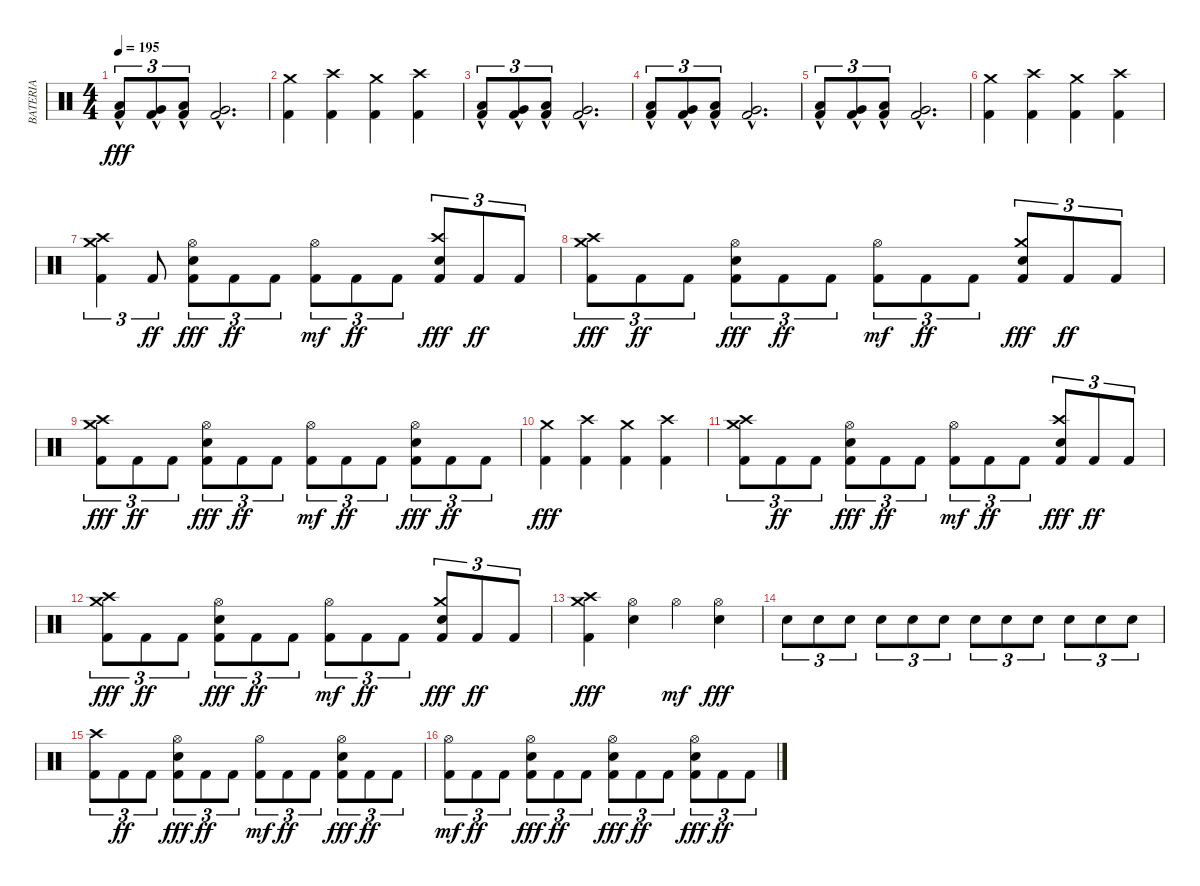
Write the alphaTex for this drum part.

\track ("BATERIA" "BATERIA") {instrument percussion}
\staff
\articulation defaults
\ts (4 4)
\tempo 195
\clef neutral
\ks c
("Kick (hit) 2" "Low Floor Tom (hit)"{hac}).8{tu (3 2) dy fff} ("Kick (hit) 2" "Very Low Tom (hit)"{hac}).8{tu (3 2)} ("Kick (hit) 2" "Low Floor Tom (hit)"{hac}).8{tu (3 2)} ("Kick (hit) 2" "Very Low Tom (hit)"{hac}).2{d} |
("Kick (hit) 2" "Crash medium (hit)").4 ("Kick (hit) 2" "Crash high (hit)").4 ("Kick (hit) 2" "Crash medium (hit)").4 ("Kick (hit) 2" "Crash high (hit)").4 |
("Kick (hit) 2" "Low Floor Tom (hit)"{hac}).8{tu (3 2)} ("Kick (hit) 2" "Very Low Tom (hit)"{hac}).8{tu (3 2)} ("Kick (hit) 2" "Low Floor Tom (hit)"{hac}).8{tu (3 2)} ("Kick (hit) 2" "Very Low Tom (hit)"{hac}).2{d} |
("Kick (hit) 2" "Low Floor Tom (hit)"{hac}).8{tu (3 2)} ("Kick (hit) 2" "Very Low Tom (hit)"{hac}).8{tu (3 2)} ("Kick (hit) 2" "Low Floor Tom (hit)"{hac}).8{tu (3 2)} ("Kick (hit) 2" "Very Low Tom (hit)"{hac}).2{d} |
("Kick (hit) 2" "Low Floor Tom (hit)"{hac}).8{tu (3 2)} ("Kick (hit) 2" "Very Low Tom (hit)"{hac}).8{tu (3 2)} ("Kick (hit) 2" "Low Floor Tom (hit)"{hac}).8{tu (3 2)} ("Kick (hit) 2" "Very Low Tom (hit)"{hac}).2{d} |
("Kick (hit) 2" "Crash medium (hit)").4 ("Kick (hit) 2" "Crash high (hit)").4 ("Kick (hit) 2" "Crash medium (hit)").4 ("Kick (hit) 2" "Crash high (hit)").4 |
("Kick (hit) 2" "Crash high (hit)" "Crash medium (hit)").4{tu (3 2)} "Kick (hit) 2".8{tu (3 2) dy ff} ("Kick (hit) 2" "Electric Snare (hit)" "Hi-Hat (open)").8{tu (3 2) dy fff} "Kick (hit) 2".8{tu (3 2) dy ff} "Kick (hit) 2".8{tu (3 2)} ("Kick (hit) 2" "Hi-Hat (open)").8{tu (3 2) dy mf} "Kick (hit) 2".8{tu (3 2) dy ff} "Kick (hit) 2".8{tu (3 2)} ("Kick (hit) 2" "Electric Snare (hit)" "Crash high (hit)").8{tu (3 2) dy fff} "Kick (hit) 2".8{tu (3 2) dy ff} "Kick (hit) 2".8{tu (3 2)} |
("Kick (hit) 2" "Crash medium (hit)" "Crash high (hit)").8{tu (3 2) dy fff} "Kick (hit) 2".8{tu (3 2) dy ff} "Kick (hit) 2".8{tu (3 2)} ("Kick (hit) 2" "Electric Snare (hit)" "Hi-Hat (open)").8{tu (3 2) dy fff} "Kick (hit) 2".8{tu (3 2) dy ff} "Kick (hit) 2".8{tu (3 2)} ("Kick (hit) 2" "Hi-Hat (open)").8{tu (3 2) dy mf} "Kick (hit) 2".8{tu (3 2) dy ff} "Kick (hit) 2".8{tu (3 2)} ("Kick (hit) 2" "Electric Snare (hit)" "Crash medium (hit)").8{tu (3 2) dy fff} "Kick (hit) 2".8{tu (3 2) dy ff} "Kick (hit) 2".8{tu (3 2)} |
("Kick (hit) 2" "Crash high (hit)" "Crash medium (hit)").8{tu (3 2) dy fff} "Kick (hit) 2".8{tu (3 2) dy ff} "Kick (hit) 2".8{tu (3 2)} ("Kick (hit) 2" "Electric Snare (hit)" "Hi-Hat (open)").8{tu (3 2) dy fff} "Kick (hit) 2".8{tu (3 2) dy ff} "Kick (hit) 2".8{tu (3 2)} ("Kick (hit) 2" "Hi-Hat (open)").8{tu (3 2) dy mf} "Kick (hit) 2".8{tu (3 2) dy ff} "Kick (hit) 2".8{tu (3 2)} ("Kick (hit) 2" "Electric Snare (hit)" "Hi-Hat (open)").8{tu (3 2) dy fff} "Kick (hit) 2".8{tu (3 2) dy ff} "Kick (hit) 2".8{tu (3 2)} |
("Kick (hit) 2" "Crash medium (hit)").4{dy fff} ("Kick (hit) 2" "Crash high (hit)").4 ("Kick (hit) 2" "Crash medium (hit)").4 ("Kick (hit) 2" "Crash high (hit)").4 |
("Kick (hit) 2" "Crash medium (hit)" "Crash high (hit)").8{tu (3 2)} "Kick (hit) 2".8{tu (3 2) dy ff} "Kick (hit) 2".8{tu (3 2)} ("Kick (hit) 2" "Electric Snare (hit)" "Hi-Hat (open)").8{tu (3 2) dy fff} "Kick (hit) 2".8{tu (3 2) dy ff} "Kick (hit) 2".8{tu (3 2)} ("Kick (hit) 2" "Hi-Hat (open)").8{tu (3 2) dy mf} "Kick (hit) 2".8{tu (3 2) dy ff} "Kick (hit) 2".8{tu (3 2)} ("Kick (hit) 2" "Electric Snare (hit)" "Crash high (hit)").8{tu (3 2) dy fff} "Kick (hit) 2".8{tu (3 2) dy ff} "Kick (hit) 2".8{tu (3 2)} |
("Kick (hit) 2" "Crash medium (hit)" "Crash high (hit)").8{tu (3 2) dy fff} "Kick (hit) 2".8{tu (3 2) dy ff} "Kick (hit) 2".8{tu (3 2)} ("Kick (hit) 2" "Electric Snare (hit)" "Hi-Hat (open)").8{tu (3 2) dy fff} "Kick (hit) 2".8{tu (3 2) dy ff} "Kick (hit) 2".8{tu (3 2)} ("Kick (hit) 2" "Hi-Hat (open)").8{tu (3 2) dy mf} "Kick (hit) 2".8{tu (3 2) dy ff} "Kick (hit) 2".8{tu (3 2)} ("Kick (hit) 2" "Electric Snare (hit)" "Crash medium (hit)").8{tu (3 2) dy fff} "Kick (hit) 2".8{tu (3 2) dy ff} "Kick (hit) 2".8{tu (3 2)} |
("Kick (hit) 2" "Crash high (hit)" "Crash medium (hit)").4{dy fff} ("Electric Snare (hit)" "Hi-Hat (open)").4 "Hi-Hat (open)".4{dy mf} ("Electric Snare (hit)" "Hi-Hat (open)").4{dy fff} |
"Electric Snare (hit)".8{tu (3 2)} "Electric Snare (hit)".8{tu (3 2)} "Electric Snare (hit)".8{tu (3 2)} "Electric Snare (hit)".8{tu (3 2)} "Electric Snare (hit)".8{tu (3 2)} "Electric Snare (hit)".8{tu (3 2)} "Electric Snare (hit)".8{tu (3 2)} "Electric Snare (hit)".8{tu (3 2)} "Electric Snare (hit)".8{tu (3 2)} "Electric Snare (hit)".8{tu (3 2)} "Electric Snare (hit)".8{tu (3 2)} "Electric Snare (hit)".8{tu (3 2)} |
("Kick (hit) 2" "Crash high (hit)").8{tu (3 2)} "Kick (hit) 2".8{tu (3 2) dy ff} "Kick (hit) 2".8{tu (3 2)} ("Kick (hit) 2" "Electric Snare (hit)" "Hi-Hat (open)").8{tu (3 2) dy fff} "Kick (hit) 2".8{tu (3 2) dy ff} "Kick (hit) 2".8{tu (3 2)} ("Kick (hit) 2" "Hi-Hat (open)").8{tu (3 2) dy mf} "Kick (hit) 2".8{tu (3 2) dy ff} "Kick (hit) 2".8{tu (3 2)} ("Kick (hit) 2" "Electric Snare (hit)" "Hi-Hat (open)").8{tu (3 2) dy fff} "Kick (hit) 2".8{tu (3 2) dy ff} "Kick (hit) 2".8{tu (3 2)} |
("Kick (hit) 2" "Hi-Hat (open)").8{tu (3 2) dy mf} "Kick (hit) 2".8{tu (3 2) dy ff} "Kick (hit) 2".8{tu (3 2)} ("Kick (hit) 2" "Electric Snare (hit)" "Hi-Hat (open)").8{tu (3 2) dy fff} "Kick (hit) 2".8{tu (3 2) dy ff} "Kick (hit) 2".8{tu (3 2)} ("Kick (hit) 2" "Electric Snare (hit)" "Hi-Hat (open)").8{tu (3 2) dy fff} "Kick (hit) 2".8{tu (3 2) dy ff} "Kick (hit) 2".8{tu (3 2)} ("Kick (hit) 2" "Electric Snare (hit)" "Hi-Hat (open)").8{tu (3 2) dy fff} "Kick (hit) 2".8{tu (3 2) dy ff} "Kick (hit) 2".8{tu (3 2)}
